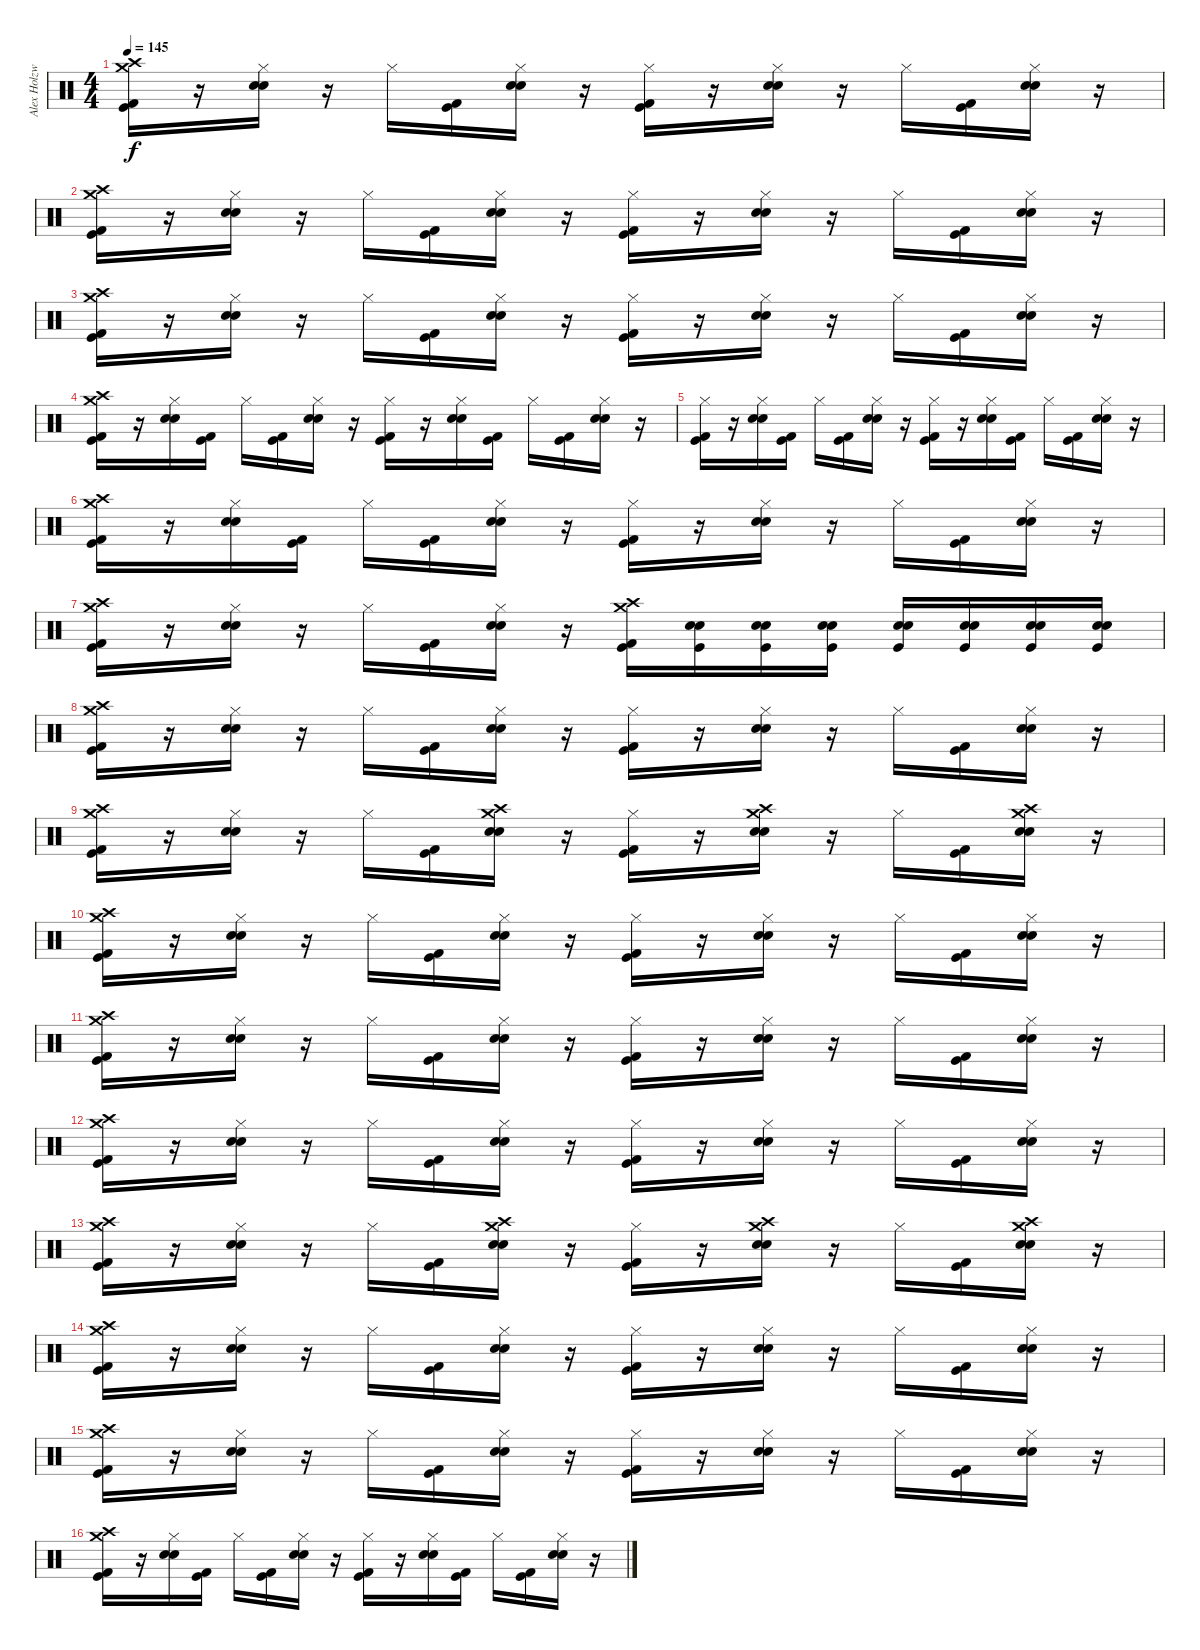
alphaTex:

\track ("Alex Holzwarth" "Alex Holzw") {instrument percussion}
\staff {score}
\articulation defaults
\ts (4 4)
\tempo 145
\clef neutral
\ks c
("Crash medium (hit)" "Crash high (hit)" "Kick (hit) 2" "Kick (hit)").16{dy f} r.16 ("Hi-Hat (closed)" "Electric Snare (hit)" "Snare (hit) 2").16 r.16 "Hi-Hat (closed)".16 ("Kick (hit) 2" "Kick (hit)").16 ("Electric Snare (hit)" "Snare (hit) 2" "Hi-Hat (closed)").16 r.16 ("Hi-Hat (closed)" "Kick (hit) 2" "Kick (hit)").16 r.16 ("Hi-Hat (closed)" "Electric Snare (hit)" "Snare (hit) 2").16 r.16 "Hi-Hat (closed)".16 ("Kick (hit) 2" "Kick (hit)").16 ("Electric Snare (hit)" "Snare (hit) 2" "Hi-Hat (closed)").16 r.16 |
("Crash medium (hit)" "Crash high (hit)" "Kick (hit) 2" "Kick (hit)").16 r.16 ("Hi-Hat (closed)" "Electric Snare (hit)" "Snare (hit) 2").16 r.16 "Hi-Hat (closed)".16 ("Kick (hit) 2" "Kick (hit)").16 ("Electric Snare (hit)" "Snare (hit) 2" "Hi-Hat (closed)").16 r.16 ("Hi-Hat (closed)" "Kick (hit) 2" "Kick (hit)").16 r.16 ("Hi-Hat (closed)" "Electric Snare (hit)" "Snare (hit) 2").16 r.16 "Hi-Hat (closed)".16 ("Kick (hit) 2" "Kick (hit)").16 ("Electric Snare (hit)" "Snare (hit) 2" "Hi-Hat (closed)").16 r.16 |
("Crash medium (hit)" "Crash high (hit)" "Kick (hit) 2" "Kick (hit)").16 r.16 ("Hi-Hat (closed)" "Electric Snare (hit)" "Snare (hit) 2").16 r.16 "Hi-Hat (closed)".16 ("Kick (hit) 2" "Kick (hit)").16 ("Electric Snare (hit)" "Snare (hit) 2" "Hi-Hat (closed)").16 r.16 ("Hi-Hat (closed)" "Kick (hit) 2" "Kick (hit)").16 r.16 ("Hi-Hat (closed)" "Electric Snare (hit)" "Snare (hit) 2").16 r.16 "Hi-Hat (closed)".16 ("Kick (hit) 2" "Kick (hit)").16 ("Electric Snare (hit)" "Snare (hit) 2" "Hi-Hat (closed)").16 r.16 |
("Crash medium (hit)" "Crash high (hit)" "Kick (hit) 2" "Kick (hit)").16 r.16 ("Hi-Hat (closed)" "Electric Snare (hit)" "Snare (hit) 2").16 ("Kick (hit) 2" "Kick (hit)").16 "Hi-Hat (closed)".16 ("Kick (hit) 2" "Kick (hit)").16 ("Electric Snare (hit)" "Snare (hit) 2" "Hi-Hat (closed)").16 r.16 ("Hi-Hat (closed)" "Kick (hit) 2" "Kick (hit)").16 r.16 ("Hi-Hat (closed)" "Electric Snare (hit)" "Snare (hit) 2").16 ("Kick (hit) 2" "Kick (hit)").16 "Hi-Hat (closed)".16 ("Kick (hit) 2" "Kick (hit)").16 ("Electric Snare (hit)" "Snare (hit) 2" "Hi-Hat (closed)").16 r.16 |
("Hi-Hat (closed)" "Kick (hit) 2" "Kick (hit)").16 r.16 ("Hi-Hat (closed)" "Electric Snare (hit)" "Snare (hit) 2").16 ("Kick (hit) 2" "Kick (hit)").16 "Hi-Hat (closed)".16 ("Kick (hit) 2" "Kick (hit)").16 ("Electric Snare (hit)" "Snare (hit) 2" "Hi-Hat (closed)").16 r.16 ("Hi-Hat (closed)" "Kick (hit) 2" "Kick (hit)").16 r.16 ("Hi-Hat (closed)" "Electric Snare (hit)" "Snare (hit) 2").16 ("Kick (hit) 2" "Kick (hit)").16 "Hi-Hat (closed)".16 ("Kick (hit) 2" "Kick (hit)").16 ("Electric Snare (hit)" "Snare (hit) 2" "Hi-Hat (closed)").16 r.16 |
("Crash medium (hit)" "Crash high (hit)" "Kick (hit) 2" "Kick (hit)").16 r.16 ("Hi-Hat (closed)" "Electric Snare (hit)" "Snare (hit) 2").16 ("Kick (hit) 2" "Kick (hit)").16 "Hi-Hat (closed)".16 ("Kick (hit) 2" "Kick (hit)").16 ("Electric Snare (hit)" "Snare (hit) 2" "Hi-Hat (closed)").16 r.16 ("Hi-Hat (closed)" "Kick (hit) 2" "Kick (hit)").16 r.16 ("Hi-Hat (closed)" "Electric Snare (hit)" "Snare (hit) 2").16 r.16 "Hi-Hat (closed)".16 ("Kick (hit) 2" "Kick (hit)").16 ("Electric Snare (hit)" "Snare (hit) 2" "Hi-Hat (closed)").16 r.16 |
("Crash medium (hit)" "Crash high (hit)" "Kick (hit) 2" "Kick (hit)").16 r.16 ("Hi-Hat (closed)" "Electric Snare (hit)" "Snare (hit) 2").16 r.16 "Hi-Hat (closed)".16 ("Kick (hit) 2" "Kick (hit)").16 ("Electric Snare (hit)" "Snare (hit) 2" "Hi-Hat (closed)").16 r.16 ("Crash high (hit)" "Crash medium (hit)" "Kick (hit) 2" "Kick (hit)").16 ("Electric Snare (hit)" "Kick (hit)" "Snare (hit) 2").16 ("Electric Snare (hit)" "Kick (hit)" "Snare (hit) 2").16 ("Electric Snare (hit)" "Kick (hit)" "Snare (hit) 2").16 ("Electric Snare (hit)" "Kick (hit)" "Snare (hit) 2").16 ("Electric Snare (hit)" "Kick (hit)" "Snare (hit) 2").16 ("Electric Snare (hit)" "Kick (hit)" "Snare (hit) 2").16 ("Electric Snare (hit)" "Kick (hit)" "Snare (hit) 2").16 |
("Crash medium (hit)" "Crash high (hit)" "Kick (hit) 2" "Kick (hit)").16 r.16 ("Hi-Hat (closed)" "Electric Snare (hit)" "Snare (hit) 2").16 r.16 "Hi-Hat (closed)".16 ("Kick (hit) 2" "Kick (hit)").16 ("Electric Snare (hit)" "Snare (hit) 2" "Hi-Hat (closed)").16 r.16 ("Hi-Hat (closed)" "Kick (hit) 2" "Kick (hit)").16 r.16 ("Hi-Hat (closed)" "Electric Snare (hit)" "Snare (hit) 2").16 r.16 "Hi-Hat (closed)".16 ("Kick (hit) 2" "Kick (hit)").16 ("Electric Snare (hit)" "Snare (hit) 2" "Hi-Hat (closed)").16 r.16 |
("Crash medium (hit)" "Crash high (hit)" "Kick (hit) 2" "Kick (hit)").16 r.16 ("Hi-Hat (closed)" "Electric Snare (hit)" "Snare (hit) 2").16 r.16 "Hi-Hat (closed)".16 ("Kick (hit) 2" "Kick (hit)").16 ("Crash medium (hit)" "Crash high (hit)" "Electric Snare (hit)" "Snare (hit) 2").16 r.16 ("Hi-Hat (closed)" "Kick (hit) 2" "Kick (hit)").16 r.16 ("Crash medium (hit)" "Crash high (hit)" "Electric Snare (hit)" "Snare (hit) 2").16 r.16 "Hi-Hat (closed)".16 ("Kick (hit) 2" "Kick (hit)").16 ("Crash medium (hit)" "Crash high (hit)" "Electric Snare (hit)" "Snare (hit) 2").16 r.16 |
("Crash medium (hit)" "Crash high (hit)" "Kick (hit) 2" "Kick (hit)").16 r.16 ("Hi-Hat (closed)" "Electric Snare (hit)" "Snare (hit) 2").16 r.16 "Hi-Hat (closed)".16 ("Kick (hit) 2" "Kick (hit)").16 ("Electric Snare (hit)" "Snare (hit) 2" "Hi-Hat (closed)").16 r.16 ("Hi-Hat (closed)" "Kick (hit) 2" "Kick (hit)").16 r.16 ("Hi-Hat (closed)" "Electric Snare (hit)" "Snare (hit) 2").16 r.16 "Hi-Hat (closed)".16 ("Kick (hit) 2" "Kick (hit)").16 ("Electric Snare (hit)" "Snare (hit) 2" "Hi-Hat (closed)").16 r.16 |
("Crash medium (hit)" "Crash high (hit)" "Kick (hit) 2" "Kick (hit)").16 r.16 ("Hi-Hat (closed)" "Electric Snare (hit)" "Snare (hit) 2").16 r.16 "Hi-Hat (closed)".16 ("Kick (hit) 2" "Kick (hit)").16 ("Electric Snare (hit)" "Snare (hit) 2" "Hi-Hat (closed)").16 r.16 ("Hi-Hat (closed)" "Kick (hit) 2" "Kick (hit)").16 r.16 ("Hi-Hat (closed)" "Electric Snare (hit)" "Snare (hit) 2").16 r.16 "Hi-Hat (closed)".16 ("Kick (hit) 2" "Kick (hit)").16 ("Electric Snare (hit)" "Snare (hit) 2" "Hi-Hat (closed)").16 r.16 |
("Crash medium (hit)" "Crash high (hit)" "Kick (hit) 2" "Kick (hit)").16 r.16 ("Hi-Hat (closed)" "Electric Snare (hit)" "Snare (hit) 2").16 r.16 "Hi-Hat (closed)".16 ("Kick (hit) 2" "Kick (hit)").16 ("Electric Snare (hit)" "Snare (hit) 2" "Hi-Hat (closed)").16 r.16 ("Hi-Hat (closed)" "Kick (hit) 2" "Kick (hit)").16 r.16 ("Hi-Hat (closed)" "Electric Snare (hit)" "Snare (hit) 2").16 r.16 "Hi-Hat (closed)".16 ("Kick (hit) 2" "Kick (hit)").16 ("Electric Snare (hit)" "Snare (hit) 2" "Hi-Hat (closed)").16 r.16 |
("Crash medium (hit)" "Crash high (hit)" "Kick (hit) 2" "Kick (hit)").16 r.16 ("Hi-Hat (closed)" "Electric Snare (hit)" "Snare (hit) 2").16 r.16 "Hi-Hat (closed)".16 ("Kick (hit) 2" "Kick (hit)").16 ("Crash medium (hit)" "Crash high (hit)" "Electric Snare (hit)" "Snare (hit) 2").16 r.16 ("Hi-Hat (closed)" "Kick (hit) 2" "Kick (hit)").16 r.16 ("Crash medium (hit)" "Crash high (hit)" "Electric Snare (hit)" "Snare (hit) 2").16 r.16 "Hi-Hat (closed)".16 ("Kick (hit) 2" "Kick (hit)").16 ("Crash medium (hit)" "Crash high (hit)" "Electric Snare (hit)" "Snare (hit) 2").16 r.16 |
("Crash medium (hit)" "Crash high (hit)" "Kick (hit) 2" "Kick (hit)").16 r.16 ("Hi-Hat (closed)" "Electric Snare (hit)" "Snare (hit) 2").16 r.16 "Hi-Hat (closed)".16 ("Kick (hit) 2" "Kick (hit)").16 ("Electric Snare (hit)" "Snare (hit) 2" "Hi-Hat (closed)").16 r.16 ("Hi-Hat (closed)" "Kick (hit) 2" "Kick (hit)").16 r.16 ("Hi-Hat (closed)" "Electric Snare (hit)" "Snare (hit) 2").16 r.16 "Hi-Hat (closed)".16 ("Kick (hit) 2" "Kick (hit)").16 ("Electric Snare (hit)" "Snare (hit) 2" "Hi-Hat (closed)").16 r.16 |
("Crash medium (hit)" "Crash high (hit)" "Kick (hit) 2" "Kick (hit)").16 r.16 ("Hi-Hat (closed)" "Electric Snare (hit)" "Snare (hit) 2").16 r.16 "Hi-Hat (closed)".16 ("Kick (hit) 2" "Kick (hit)").16 ("Electric Snare (hit)" "Snare (hit) 2" "Hi-Hat (closed)").16 r.16 ("Hi-Hat (closed)" "Kick (hit) 2" "Kick (hit)").16 r.16 ("Hi-Hat (closed)" "Electric Snare (hit)" "Snare (hit) 2").16 r.16 "Hi-Hat (closed)".16 ("Kick (hit) 2" "Kick (hit)").16 ("Electric Snare (hit)" "Snare (hit) 2" "Hi-Hat (closed)").16 r.16 |
("Crash medium (hit)" "Crash high (hit)" "Kick (hit) 2" "Kick (hit)").16 r.16 ("Hi-Hat (closed)" "Electric Snare (hit)" "Snare (hit) 2").16 ("Kick (hit) 2" "Kick (hit)").16 "Hi-Hat (closed)".16 ("Kick (hit) 2" "Kick (hit)").16 ("Electric Snare (hit)" "Snare (hit) 2" "Hi-Hat (closed)").16 r.16 ("Hi-Hat (closed)" "Kick (hit) 2" "Kick (hit)").16 r.16 ("Hi-Hat (closed)" "Electric Snare (hit)" "Snare (hit) 2").16 ("Kick (hit) 2" "Kick (hit)").16 "Hi-Hat (closed)".16 ("Kick (hit) 2" "Kick (hit)").16 ("Electric Snare (hit)" "Snare (hit) 2" "Hi-Hat (closed)").16 r.16
